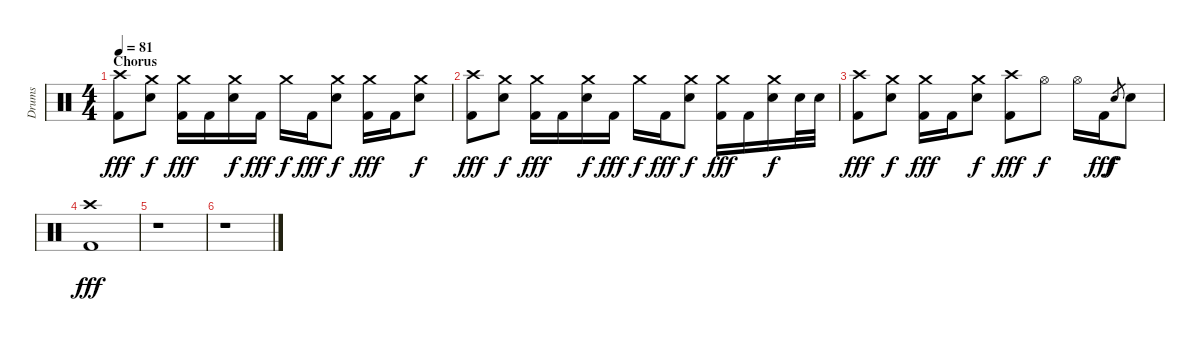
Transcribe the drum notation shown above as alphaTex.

\track ("Drums" "Drums") {instrument percussion}
\staff {score}
\articulation defaults
\ts (4 4)
\section ("" "Chorus")
\tempo 81
\clef neutral
\ks c
("Crash high (hit)" "Kick (hit) 2").8{dy fff} ("Crash medium (hit)" "Snare (hit) 2").8{dy f} ("Crash medium (hit)" "Kick (hit) 2").16{dy fff} "Kick (hit) 2".16 ("Crash medium (hit)" "Snare (hit) 2").16{dy f} "Kick (hit) 2".16{dy fff} "Crash medium (hit)".16{dy f} "Kick (hit) 2".16{dy fff} ("Crash medium (hit)" "Snare (hit) 2").8{dy f} ("Crash medium (hit)" "Kick (hit) 2").16{dy fff} "Kick (hit) 2".16 ("Crash medium (hit)" "Snare (hit) 2").8{dy f} |
("Crash high (hit)" "Kick (hit) 2").8{dy fff} ("Crash medium (hit)" "Snare (hit) 2").8{dy f} ("Crash medium (hit)" "Kick (hit) 2").16{dy fff} "Kick (hit) 2".16 ("Crash medium (hit)" "Snare (hit) 2").16{dy f} "Kick (hit) 2".16{dy fff} "Crash medium (hit)".16{dy f} "Kick (hit) 2".16{dy fff} ("Crash medium (hit)" "Snare (hit) 2").8{dy f} ("Crash medium (hit)" "Kick (hit) 2").16{dy fff} "Kick (hit) 2".16 ("Crash medium (hit)" "Snare (hit) 2").16{dy f} "Snare (hit) 2".32 "Snare (hit) 2".32 |
("Crash high (hit)" "Kick (hit) 2").8{dy fff} ("Crash medium (hit)" "Snare (hit) 2").8{dy f} ("Crash medium (hit)" "Kick (hit) 2").16{dy fff} "Kick (hit) 2".16 ("Crash medium (hit)" "Snare (hit) 2").8{dy f} ("Crash high (hit)" "Kick (hit) 2").8{dy fff} "Hi-Hat (open)".8{dy f} "Hi-Hat (open)".16 "Kick (hit) 2".16{dy fff} "Snare (hit) 2".8{gr dy f} "Snare (hit) 2".8 |
("Crash high (hit)" "Kick (hit) 2").1{dy fff} |
r.1 |
r.1
